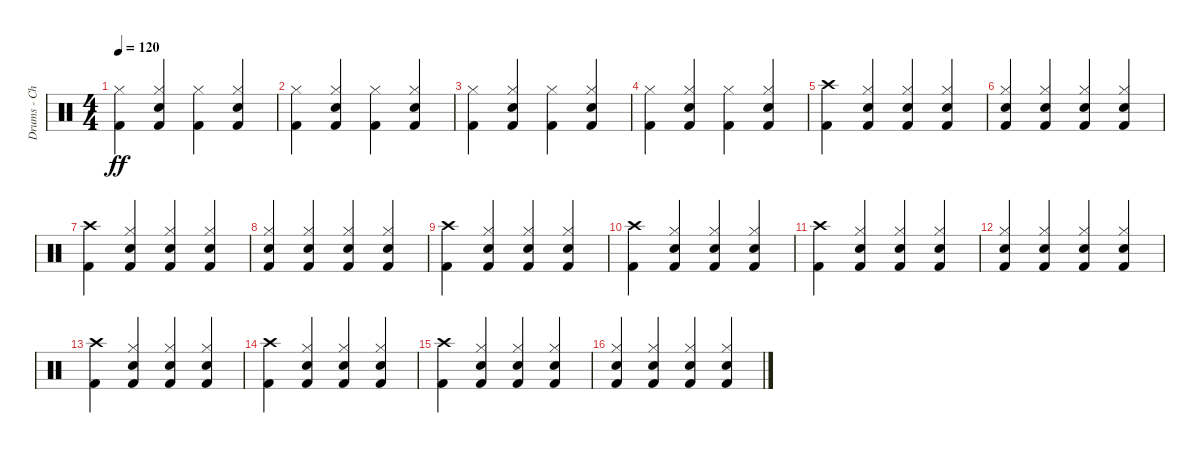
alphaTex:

\track ("Drums - Chris Frantz" "Drums - Ch") {instrument percussion}
\staff {score}
\articulation defaults
\ts (4 4)
\tempo 120
\clef neutral
\ks c
("Kick (hit) 2" "Hi-Hat (closed)").4{dy ff} ("Kick (hit) 2" "Snare (hit) 2" "Hi-Hat (closed)").4 ("Kick (hit) 2" "Hi-Hat (closed)").4 ("Kick (hit) 2" "Snare (hit) 2" "Hi-Hat (closed)").4 |
("Kick (hit) 2" "Hi-Hat (closed)").4 ("Kick (hit) 2" "Snare (hit) 2" "Hi-Hat (closed)").4 ("Kick (hit) 2" "Hi-Hat (closed)").4 ("Kick (hit) 2" "Snare (hit) 2" "Hi-Hat (closed)").4 |
("Kick (hit) 2" "Hi-Hat (closed)").4 ("Kick (hit) 2" "Snare (hit) 2" "Hi-Hat (closed)").4 ("Kick (hit) 2" "Hi-Hat (closed)").4 ("Kick (hit) 2" "Snare (hit) 2" "Hi-Hat (closed)").4 |
("Kick (hit) 2" "Hi-Hat (closed)").4 ("Kick (hit) 2" "Snare (hit) 2" "Hi-Hat (closed)").4 ("Kick (hit) 2" "Hi-Hat (closed)").4 ("Kick (hit) 2" "Snare (hit) 2" "Hi-Hat (closed)").4 |
("Kick (hit) 2" "Crash high (hit)").4 ("Kick (hit) 2" "Snare (hit) 2" "Hi-Hat (closed)").4 ("Kick (hit) 2" "Snare (hit) 2" "Hi-Hat (closed)").4 ("Kick (hit) 2" "Snare (hit) 2" "Hi-Hat (closed)").4 |
("Kick (hit) 2" "Snare (hit) 2" "Hi-Hat (closed)").4 ("Kick (hit) 2" "Snare (hit) 2" "Hi-Hat (closed)").4 ("Kick (hit) 2" "Snare (hit) 2" "Hi-Hat (closed)").4 ("Kick (hit) 2" "Snare (hit) 2" "Hi-Hat (closed)").4 |
("Kick (hit) 2" "Crash high (hit)").4 ("Kick (hit) 2" "Snare (hit) 2" "Hi-Hat (closed)").4 ("Kick (hit) 2" "Snare (hit) 2" "Hi-Hat (closed)").4 ("Kick (hit) 2" "Snare (hit) 2" "Hi-Hat (closed)").4 |
("Kick (hit) 2" "Snare (hit) 2" "Hi-Hat (closed)").4 ("Kick (hit) 2" "Snare (hit) 2" "Hi-Hat (closed)").4 ("Kick (hit) 2" "Snare (hit) 2" "Hi-Hat (closed)").4 ("Kick (hit) 2" "Snare (hit) 2" "Hi-Hat (closed)").4 |
("Kick (hit) 2" "Crash high (hit)").4 ("Kick (hit) 2" "Snare (hit) 2" "Hi-Hat (closed)").4 ("Kick (hit) 2" "Snare (hit) 2" "Hi-Hat (closed)").4 ("Kick (hit) 2" "Snare (hit) 2" "Hi-Hat (closed)").4 |
("Kick (hit) 2" "Crash high (hit)").4 ("Kick (hit) 2" "Snare (hit) 2" "Hi-Hat (closed)").4 ("Kick (hit) 2" "Snare (hit) 2" "Hi-Hat (closed)").4 ("Kick (hit) 2" "Snare (hit) 2" "Hi-Hat (closed)").4 |
("Kick (hit) 2" "Crash high (hit)").4 ("Kick (hit) 2" "Snare (hit) 2" "Hi-Hat (closed)").4 ("Kick (hit) 2" "Snare (hit) 2" "Hi-Hat (closed)").4 ("Kick (hit) 2" "Snare (hit) 2" "Hi-Hat (closed)").4 |
("Kick (hit) 2" "Snare (hit) 2" "Hi-Hat (closed)").4 ("Kick (hit) 2" "Snare (hit) 2" "Hi-Hat (closed)").4 ("Kick (hit) 2" "Snare (hit) 2" "Hi-Hat (closed)").4 ("Kick (hit) 2" "Snare (hit) 2" "Hi-Hat (closed)").4 |
("Kick (hit) 2" "Crash high (hit)").4 ("Kick (hit) 2" "Snare (hit) 2" "Hi-Hat (closed)").4 ("Kick (hit) 2" "Snare (hit) 2" "Hi-Hat (closed)").4 ("Kick (hit) 2" "Snare (hit) 2" "Hi-Hat (closed)").4 |
("Kick (hit) 2" "Crash high (hit)").4 ("Kick (hit) 2" "Snare (hit) 2" "Hi-Hat (closed)").4 ("Kick (hit) 2" "Snare (hit) 2" "Hi-Hat (closed)").4 ("Kick (hit) 2" "Snare (hit) 2" "Hi-Hat (closed)").4 |
("Kick (hit) 2" "Crash high (hit)").4 ("Kick (hit) 2" "Snare (hit) 2" "Hi-Hat (closed)").4 ("Kick (hit) 2" "Snare (hit) 2" "Hi-Hat (closed)").4 ("Kick (hit) 2" "Snare (hit) 2" "Hi-Hat (closed)").4 |
("Kick (hit) 2" "Snare (hit) 2" "Hi-Hat (closed)").4 ("Kick (hit) 2" "Snare (hit) 2" "Hi-Hat (closed)").4 ("Kick (hit) 2" "Snare (hit) 2" "Hi-Hat (closed)").4 ("Kick (hit) 2" "Snare (hit) 2" "Hi-Hat (closed)").4
